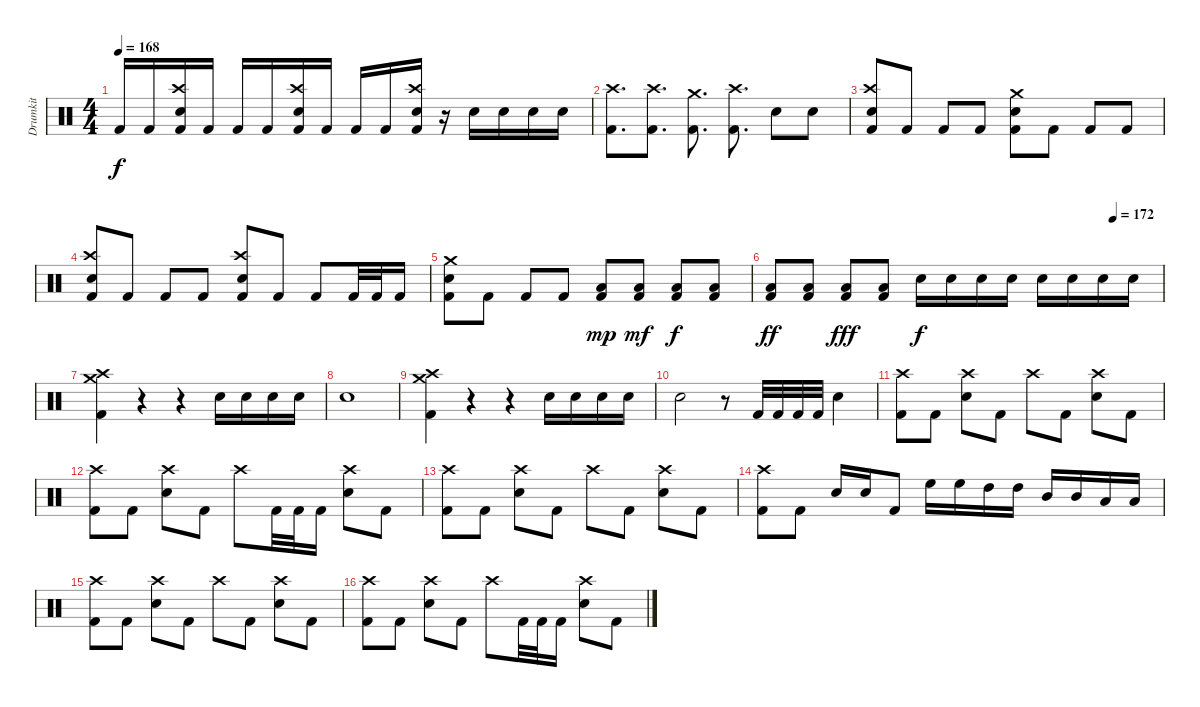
\track ("Drumkit" "Drumkit") {instrument percussion}
\staff {score}
\articulation defaults
\ts (4 4)
\tempo 168
\clef neutral
\ks c "Kick (hit) 2".16{dy f} "Kick (hit) 2".16
("Crash high (hit)" "Snare (hit) 2" "Kick (hit) 2").16 "Kick (hit) 2".16 "Kick (hit) 2".16 "Kick (hit) 2".16 ("Crash high (hit)" "Snare (hit) 2" "Kick (hit) 2").16 "Kick (hit) 2".16 "Kick (hit) 2".16 "Kick (hit) 2".16 ("Crash high (hit)" "Snare (hit) 2" "Kick (hit) 2").16 r.16 "Snare (hit) 2".16 "Snare (hit) 2".16 "Snare (hit) 2".16 "Snare (hit) 2".16 |
("Crash high (hit)" "Kick (hit) 2").8{d} ("Crash high (hit)" "Kick (hit) 2").8{d} ("Crash medium (hit)" "Kick (hit) 2").8{d} ("Crash high (hit)" "Kick (hit) 2").8{d} "Snare (hit) 2".8 "Snare (hit) 2".8 |
("Crash high (hit)" "Snare (hit) 2" "Kick (hit) 2").8 "Kick (hit) 2".8 "Kick (hit) 2".8 "Kick (hit) 2".8 ("Crash medium (hit)" "Snare (hit) 2" "Kick (hit) 2").8 "Kick (hit) 2".8 "Kick (hit) 2".8 "Kick (hit) 2".8 |
("Crash high (hit)" "Snare (hit) 2" "Kick (hit) 2").8 "Kick (hit) 2".8 "Kick (hit) 2".8 "Kick (hit) 2".8 ("Crash high (hit)" "Snare (hit) 2" "Kick (hit) 2").8 "Kick (hit) 2".8 "Kick (hit) 2".8 "Kick (hit) 2".32 "Kick (hit) 2".32 "Kick (hit) 2".16 |
("Crash medium (hit)" "Snare (hit) 2" "Kick (hit) 2").8 "Kick (hit) 2".8 "Kick (hit) 2".8 "Kick (hit) 2".8 ("Low Tom (hit)" "Kick (hit) 2").8{dy mp} ("Low Tom (hit)" "Kick (hit) 2").8{dy mf} ("Low Tom (hit)" "Kick (hit) 2").8{dy f} ("Low Tom (hit)" "Kick (hit) 2").8 |
\tempo (172 0.875)
("Low Tom (hit)" "Kick (hit) 2").8{dy ff} ("Low Tom (hit)" "Kick (hit) 2").8 ("Low Tom (hit)" "Kick (hit) 2").8{dy fff} ("Low Tom (hit)" "Kick (hit) 2").8 "Snare (hit) 2".16{dy f} "Snare (hit) 2".16 "Snare (hit) 2".16 "Snare (hit) 2".16 "Snare (hit) 2".16 "Snare (hit) 2".16 "Snare (hit) 2".16 "Snare (hit) 2".16 |
("Crash medium (hit)" "Crash high (hit)" "Kick (hit) 2").4 r.4 r.4 "Snare (hit) 2".16 "Snare (hit) 2".16 "Snare (hit) 2".16 "Snare (hit) 2".16 |
"Snare (hit) 2".1 |
("Crash medium (hit)" "Crash high (hit)" "Kick (hit) 2").4 r.4 r.4 "Snare (hit) 2".16 "Snare (hit) 2".16 "Snare (hit) 2".16 "Snare (hit) 2".16 |
"Snare (hit) 2".2 r.8 "Kick (hit) 2".32 "Kick (hit) 2".32 "Kick (hit) 2".32 "Kick (hit) 2".32 "Snare (hit) 2".4 |
("Crash high (hit)" "Kick (hit) 2").8 "Kick (hit) 2".8 ("Crash high (hit)" "Snare (hit) 2").8 "Kick (hit) 2".8 "Crash high (hit)".8 "Kick (hit) 2".8 ("Crash high (hit)" "Snare (hit) 2").8 "Kick (hit) 2".8 |
("Crash high (hit)" "Kick (hit) 2").8 "Kick (hit) 2".8 ("Crash high (hit)" "Snare (hit) 2").8 "Kick (hit) 2".8 "Crash high (hit)".8 "Kick (hit) 2".32 "Kick (hit) 2".32 "Kick (hit) 2".16 ("Crash high (hit)" "Snare (hit) 2").8 "Kick (hit) 2".8 |
("Crash high (hit)" "Kick (hit) 2").8 "Kick (hit) 2".8 ("Crash high (hit)" "Snare (hit) 2").8 "Kick (hit) 2".8 "Crash high (hit)".8 "Kick (hit) 2".8 ("Crash high (hit)" "Snare (hit) 2").8 "Kick (hit) 2".8 |
("Crash high (hit)" "Kick (hit) 2").8 "Kick (hit) 2".8 "Snare (hit) 2".16 "Snare (hit) 2".16 "Kick (hit) 2".8 "High Floor Tom (hit)".16 "High Floor Tom (hit)".16 "High Tom (hit)".16 "High Tom (hit)".16 "Mid Tom (hit)".16 "Mid Tom (hit)".16 "Low Tom (hit)".16 "Low Tom (hit)".16 |
("Crash high (hit)" "Kick (hit) 2").8 "Kick (hit) 2".8 ("Crash high (hit)" "Snare (hit) 2").8 "Kick (hit) 2".8 "Crash high (hit)".8 "Kick (hit) 2".8 ("Crash high (hit)" "Snare (hit) 2").8 "Kick (hit) 2".8 |
("Crash high (hit)" "Kick (hit) 2").8 "Kick (hit) 2".8 ("Crash high (hit)" "Snare (hit) 2").8 "Kick (hit) 2".8 "Crash high (hit)".8 "Kick (hit) 2".32 "Kick (hit) 2".32 "Kick (hit) 2".16 ("Crash high (hit)" "Snare (hit) 2").8 "Kick (hit) 2".8
